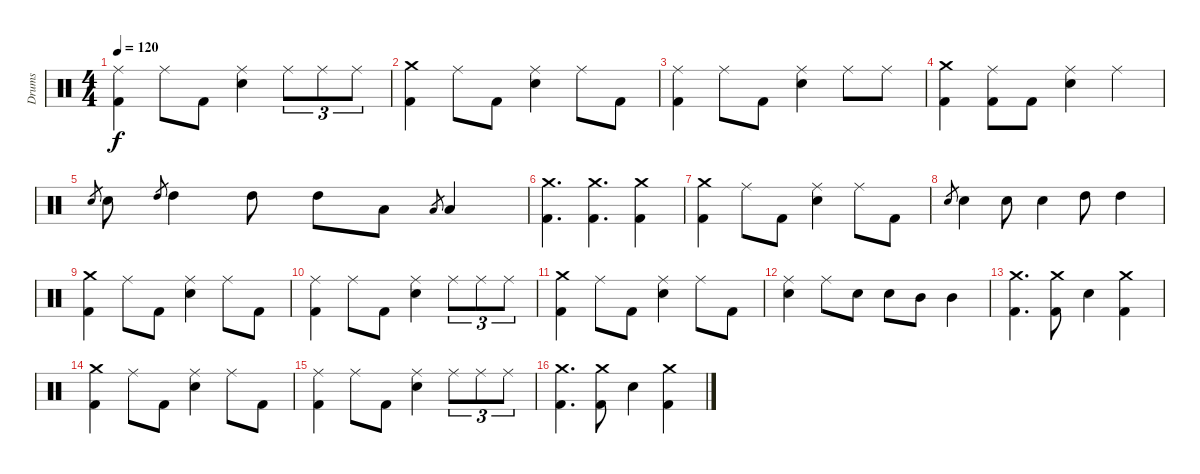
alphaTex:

\track ("Drums" "Drums") {instrument percussion}
\staff {score}
\articulation defaults
\ts (4 4)
\tempo 120
\clef neutral
\ks c
("Ride (middle)" "Kick (hit) 2").4{dy f} "Ride (middle)".8 "Kick (hit) 2".8 ("Ride (middle)" "Snare (hit) 2").4 "Ride (middle)".8{tu (3 2)} "Ride (middle)".8{tu (3 2)} "Ride (middle)".8{tu (3 2)} |
("Crash medium (hit)" "Kick (hit) 2").4 "Ride (middle)".8 "Kick (hit) 2".8 ("Ride (middle)" "Snare (hit) 2").4 "Ride (middle)".8 "Kick (hit) 2".8 |
("Ride (middle)" "Kick (hit) 2").4 "Ride (middle)".8 "Kick (hit) 2".8 ("Ride (middle)" "Snare (hit) 2").4 "Ride (middle)".8 "Ride (middle)".8 |
("Crash medium (hit)" "Kick (hit) 2").4 ("Ride (middle)" "Kick (hit) 2").8 "Kick (hit) 2".8 ("Ride (middle)" "Snare (hit) 2").4 "Ride (middle)".4 |
"Snare (hit) 2".8{gr} "Snare (hit) 2".8 "High Tom (hit)".8{gr} "High Tom (hit)".4 "High Tom (hit)".8 "High Tom (hit)".8 "Low Tom (hit)".8 "Low Tom (hit)".8{gr} "Low Tom (hit)".4 |
("Crash medium (hit)" "Kick (hit) 2").4{d} ("Crash medium (hit)" "Kick (hit) 2").4{d} ("Crash medium (hit)" "Kick (hit) 2").4 |
("Crash medium (hit)" "Kick (hit) 2").4 "Ride (middle)".8 "Kick (hit) 2".8 ("Ride (middle)" "Snare (hit) 2").4 "Ride (middle)".8 "Kick (hit) 2".8 |
"Snare (hit) 2".8{gr} "Snare (hit) 2".4 "Snare (hit) 2".8 "Snare (hit) 2".4 "High Tom (hit)".8 "High Tom (hit)".4 |
("Crash medium (hit)" "Kick (hit) 2").4 "Ride (middle)".8 "Kick (hit) 2".8 ("Ride (middle)" "Snare (hit) 2").4 "Ride (middle)".8 "Kick (hit) 2".8 |
("Ride (middle)" "Kick (hit) 2").4 "Ride (middle)".8 "Kick (hit) 2".8 ("Ride (middle)" "Snare (hit) 2").4 "Ride (middle)".8{tu (3 2)} "Ride (middle)".8{tu (3 2)} "Ride (middle)".8{tu (3 2)} |
("Crash medium (hit)" "Kick (hit) 2").4 "Ride (middle)".8 "Kick (hit) 2".8 ("Ride (middle)" "Snare (hit) 2").4 "Ride (middle)".8 "Kick (hit) 2".8 |
("Ride (middle)" "Snare (hit) 2").4 "Ride (middle)".8 "Snare (hit) 2".8 "Snare (hit) 2".8 "Mid Tom (hit)".8 "Mid Tom (hit)".4 |
("Crash medium (hit)" "Kick (hit) 2").4{d} ("Crash medium (hit)" "Kick (hit) 2").8 "Snare (hit) 2".4 ("Crash medium (hit)" "Kick (hit) 2").4 |
("Crash medium (hit)" "Kick (hit) 2").4 "Ride (middle)".8 "Kick (hit) 2".8 ("Ride (middle)" "Snare (hit) 2").4 "Ride (middle)".8 "Kick (hit) 2".8 |
("Ride (middle)" "Kick (hit) 2").4 "Ride (middle)".8 "Kick (hit) 2".8 ("Ride (middle)" "Snare (hit) 2").4 "Ride (middle)".8{tu (3 2)} "Ride (middle)".8{tu (3 2)} "Ride (middle)".8{tu (3 2)} |
("Crash medium (hit)" "Kick (hit) 2").4{d} ("Crash medium (hit)" "Kick (hit) 2").8 "Snare (hit) 2".4 ("Crash medium (hit)" "Kick (hit) 2").4
